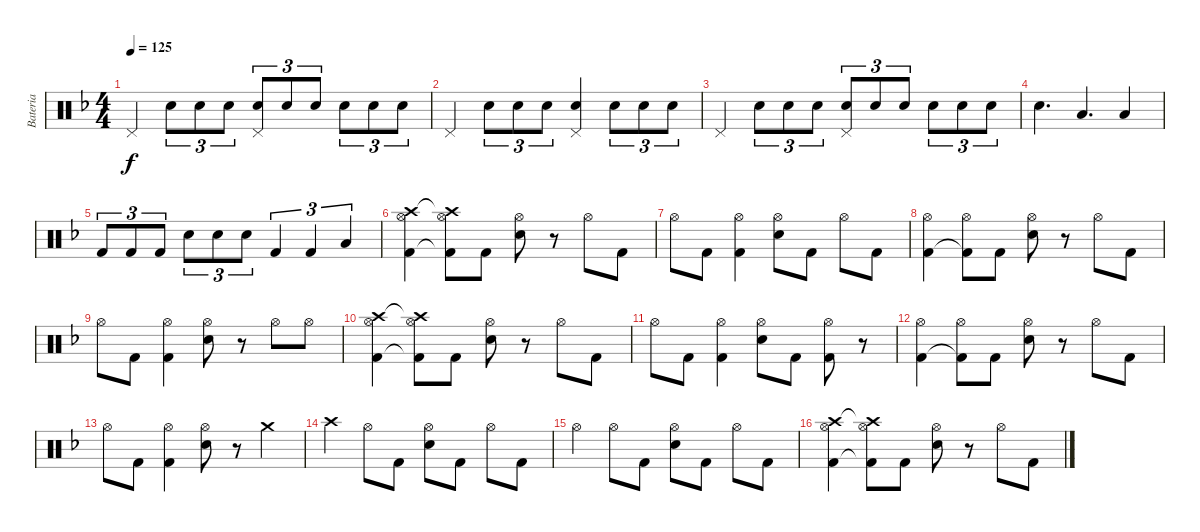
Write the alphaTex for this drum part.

\track ("Bateria" "Bateria") {instrument percussion}
\staff {score}
\articulation defaults
\ts (4 4)
\tempo 125
\clef neutral
\ks f "Pedal Hi-Hat (hit)".4{dy f} "Electric Snare (hit)".8{tu (3 2)} "Electric Snare (hit)".8{tu (3 2)} "Electric Snare (hit)".8{tu (3 2)}
("Pedal Hi-Hat (hit)" "Electric Snare (hit)").8{tu (3 2)} "Electric Snare (hit)".8{tu (3 2)} "Electric Snare (hit)".8{tu (3 2)} "Electric Snare (hit)".8{tu (3 2)} "Electric Snare (hit)".8{tu (3 2)} "Electric Snare (hit)".8{tu (3 2)} |
"Pedal Hi-Hat (hit)".4 "Electric Snare (hit)".8{tu (3 2)} "Electric Snare (hit)".8{tu (3 2)} "Electric Snare (hit)".8{tu (3 2)} ("Pedal Hi-Hat (hit)" "Electric Snare (hit)").4 "Electric Snare (hit)".8{tu (3 2)} "Electric Snare (hit)".8{tu (3 2)} "Electric Snare (hit)".8{tu (3 2)} |
"Pedal Hi-Hat (hit)".4 "Electric Snare (hit)".8{tu (3 2)} "Electric Snare (hit)".8{tu (3 2)} "Electric Snare (hit)".8{tu (3 2)} ("Pedal Hi-Hat (hit)" "Electric Snare (hit)").8{tu (3 2)} "Electric Snare (hit)".8{tu (3 2)} "Electric Snare (hit)".8{tu (3 2)} "Electric Snare (hit)".8{tu (3 2)} "Electric Snare (hit)".8{tu (3 2)} "Electric Snare (hit)".8{tu (3 2)} |
"Snare (hit) 2".4{d volume 7} "Low Floor Tom (hit)".4{d} "Low Tom (hit)".4 |
"Kick (hit) 2".8{tu (3 2)} "Kick (hit) 2".8{tu (3 2)} "Kick (hit) 2".8{tu (3 2)} "Electric Snare (hit)".8{tu (3 2)} "Electric Snare (hit)".8{tu (3 2)} "Electric Snare (hit)".8{tu (3 2)} "Kick (hit) 2".4{tu (3 2)} "Kick (hit) 2".4{tu (3 2)} "Low Tom (hit)".4{tu (3 2)} |
("Hi-Hat (open)" "Crash high (hit)" "Kick (hit) 2").4 ("Hi-Hat (open)" "Crash high (hit)"{t} "Kick (hit) 2"{t}).8 "Kick (hit) 2".8 ("Hi-Hat (open)" "Electric Snare (hit)").8 r.8 "Hi-Hat (open)".8 "Kick (hit) 2".8 |
"Hi-Hat (open)".8 "Kick (hit) 2".8 ("Hi-Hat (open)" "Kick (hit) 2").4 ("Hi-Hat (open)" "Electric Snare (hit)").8 "Kick (hit) 2".8 "Hi-Hat (open)".8 "Kick (hit) 2".8 |
("Hi-Hat (open)" "Kick (hit) 2").4 ("Hi-Hat (open)" "Kick (hit) 2"{t}).8 "Kick (hit) 2".8 ("Hi-Hat (open)" "Electric Snare (hit)").8 r.8 "Hi-Hat (open)".8 "Kick (hit) 2".8 |
"Hi-Hat (open)".8 "Kick (hit) 2".8 ("Hi-Hat (open)" "Kick (hit) 2").4 ("Hi-Hat (open)" "Electric Snare (hit)").8 r.8 "Hi-Hat (open)".8 "Hi-Hat (open)".8 |
("Hi-Hat (open)" "Crash high (hit)" "Kick (hit) 2").4 ("Hi-Hat (open)" "Crash high (hit)"{t} "Kick (hit) 2"{t}).8 "Kick (hit) 2".8 ("Hi-Hat (open)" "Electric Snare (hit)").8 r.8 "Hi-Hat (open)".8 "Kick (hit) 2".8 |
"Hi-Hat (open)".8 "Kick (hit) 2".8 ("Hi-Hat (open)" "Kick (hit) 2").4 ("Hi-Hat (open)" "Electric Snare (hit)").8 "Kick (hit) 2".8 ("Hi-Hat (open)" "Kick (hit) 2").8 r.8 |
("Hi-Hat (open)" "Kick (hit) 2").4 ("Hi-Hat (open)" "Kick (hit) 2"{t}).8 "Kick (hit) 2".8 ("Hi-Hat (open)" "Electric Snare (hit)").8 r.8 "Hi-Hat (open)".8 "Kick (hit) 2".8 |
"Hi-Hat (open)".8 "Kick (hit) 2".8 ("Hi-Hat (open)" "Kick (hit) 2").4 ("Hi-Hat (open)" "Electric Snare (hit)").8 r.8 "Crash medium (hit)".4 |
"Crash high (hit)".4 "Hi-Hat (open)".8 "Kick (hit) 2".8 ("Hi-Hat (open)" "Electric Snare (hit)").8 "Kick (hit) 2".8 "Hi-Hat (open)".8 "Kick (hit) 2".8 |
"Hi-Hat (open)".4 "Hi-Hat (open)".8 "Kick (hit) 2".8 ("Hi-Hat (open)" "Electric Snare (hit)").8 "Kick (hit) 2".8 "Hi-Hat (open)".8 "Kick (hit) 2".8 |
("Hi-Hat (open)" "Crash high (hit)" "Kick (hit) 2").4 ("Hi-Hat (open)" "Crash high (hit)"{t} "Kick (hit) 2"{t}).8 "Kick (hit) 2".8 ("Hi-Hat (open)" "Electric Snare (hit)").8 r.8 "Hi-Hat (open)".8 "Kick (hit) 2".8
